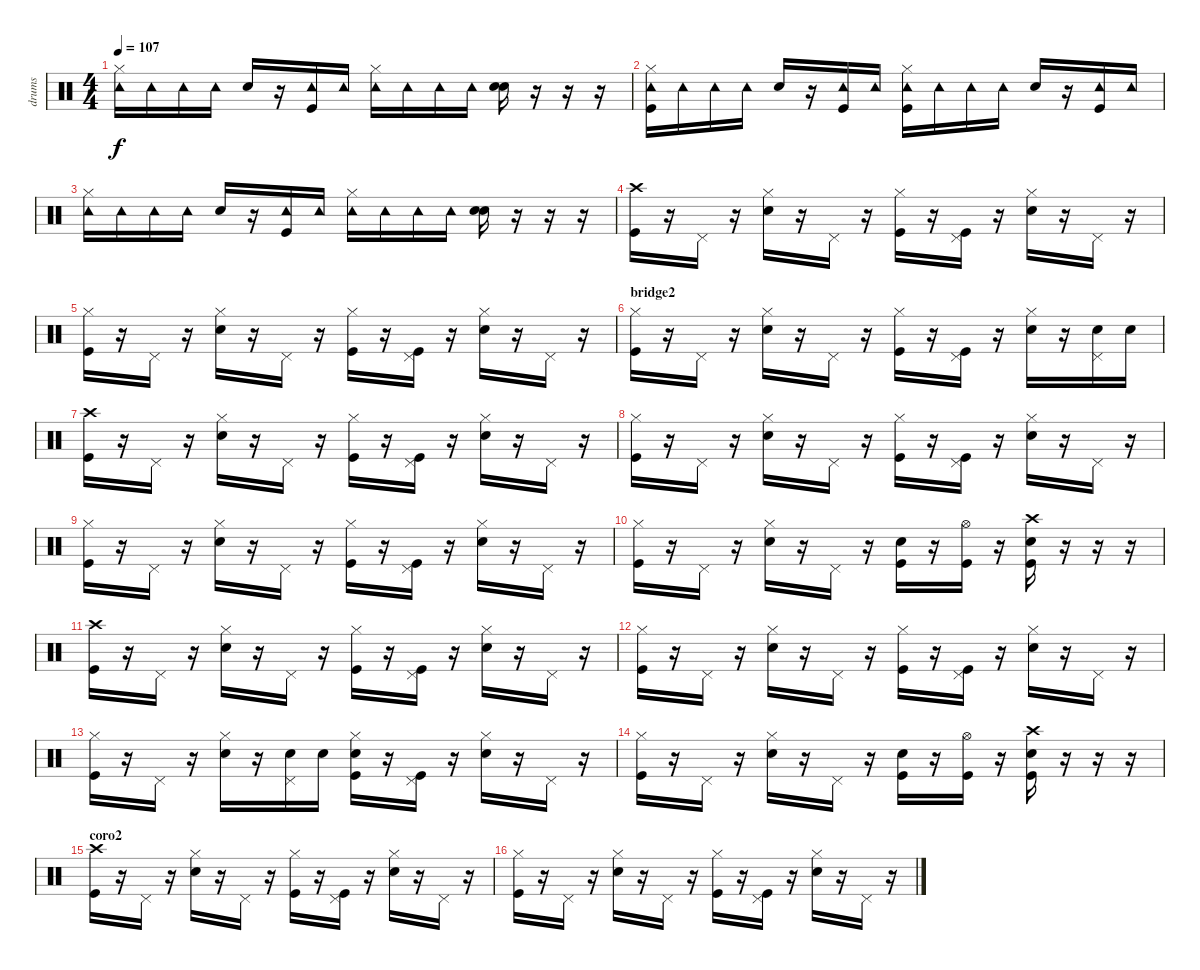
\track ("drums" "drums") {instrument percussion}
\staff {score}
\articulation defaults
\ts (4 4)
\tempo 107
\clef neutral
\ks c
("Hi-Hat (closed)" "Tambourine (hit)").16{dy f} "Tambourine (hit)".16 "Tambourine (hit)".16 "Tambourine (hit)".16 "Snare (hit) 2".16 r.16 ("Tambourine (hit)" "Kick (hit)").16 "Tambourine (hit)".16 ("Hi-Hat (closed)" "Tambourine (hit)").16 "Tambourine (hit)".16 "Tambourine (hit)".16 "Tambourine (hit)".16 ("Snare (hit) 2" "Electric Snare (hit)").16 r.16 r.16 r.16 |
("Hi-Hat (closed)" "Tambourine (hit)" "Kick (hit)").16 "Tambourine (hit)".16 "Tambourine (hit)".16 "Tambourine (hit)".16 "Snare (hit) 2".16 r.16 ("Tambourine (hit)" "Kick (hit)").16 "Tambourine (hit)".16 ("Hi-Hat (closed)" "Tambourine (hit)" "Kick (hit)").16 "Tambourine (hit)".16 "Tambourine (hit)".16 "Tambourine (hit)".16 "Snare (hit) 2".16 r.16 ("Tambourine (hit)" "Kick (hit)").16 "Tambourine (hit)".16 |
("Hi-Hat (closed)" "Tambourine (hit)").16 "Tambourine (hit)".16 "Tambourine (hit)".16 "Tambourine (hit)".16 "Snare (hit) 2".16 r.16 ("Tambourine (hit)" "Kick (hit)").16 "Tambourine (hit)".16 ("Hi-Hat (closed)" "Tambourine (hit)").16 "Tambourine (hit)".16 "Tambourine (hit)".16 "Tambourine (hit)".16 ("Snare (hit) 2" "Electric Snare (hit)").16 r.16 r.16 r.16 |
("Crash high (hit)" "Kick (hit)").16 r.16 "Pedal Hi-Hat (hit)".16 r.16 ("Hi-Hat (closed)" "Snare (hit) 2").16 r.16 "Pedal Hi-Hat (hit)".16 r.16 ("Hi-Hat (closed)" "Kick (hit)").16 r.16 ("Pedal Hi-Hat (hit)" "Kick (hit)").16 r.16 ("Hi-Hat (closed)" "Snare (hit) 2").16 r.16 "Pedal Hi-Hat (hit)".16 r.16 |
("Hi-Hat (closed)" "Kick (hit)").16 r.16 "Pedal Hi-Hat (hit)".16 r.16 ("Hi-Hat (closed)" "Snare (hit) 2").16 r.16 "Pedal Hi-Hat (hit)".16 r.16 ("Hi-Hat (closed)" "Kick (hit)").16 r.16 ("Pedal Hi-Hat (hit)" "Kick (hit)").16 r.16 ("Hi-Hat (closed)" "Snare (hit) 2").16 r.16 "Pedal Hi-Hat (hit)".16 r.16 |
\section ("" "bridge2")
("Hi-Hat (closed)" "Kick (hit)").16 r.16 "Pedal Hi-Hat (hit)".16 r.16 ("Hi-Hat (closed)" "Snare (hit) 2").16 r.16 "Pedal Hi-Hat (hit)".16 r.16 ("Hi-Hat (closed)" "Kick (hit)").16 r.16 ("Pedal Hi-Hat (hit)" "Kick (hit)").16 r.16 ("Hi-Hat (closed)" "Snare (hit) 2").16 r.16 ("Pedal Hi-Hat (hit)" "Snare (hit) 2").16 "Snare (hit) 2".16 |
("Crash high (hit)" "Kick (hit)").16 r.16 "Pedal Hi-Hat (hit)".16 r.16 ("Hi-Hat (closed)" "Snare (hit) 2").16 r.16 "Pedal Hi-Hat (hit)".16 r.16 ("Hi-Hat (closed)" "Kick (hit)").16 r.16 ("Pedal Hi-Hat (hit)" "Kick (hit)").16 r.16 ("Hi-Hat (closed)" "Snare (hit) 2").16 r.16 "Pedal Hi-Hat (hit)".16 r.16 |
("Hi-Hat (closed)" "Kick (hit)").16 r.16 "Pedal Hi-Hat (hit)".16 r.16 ("Hi-Hat (closed)" "Snare (hit) 2").16 r.16 "Pedal Hi-Hat (hit)".16 r.16 ("Hi-Hat (closed)" "Kick (hit)").16 r.16 ("Pedal Hi-Hat (hit)" "Kick (hit)").16 r.16 ("Hi-Hat (closed)" "Snare (hit) 2").16 r.16 "Pedal Hi-Hat (hit)".16 r.16 |
("Hi-Hat (closed)" "Kick (hit)").16 r.16 "Pedal Hi-Hat (hit)".16 r.16 ("Hi-Hat (closed)" "Snare (hit) 2").16 r.16 "Pedal Hi-Hat (hit)".16 r.16 ("Hi-Hat (closed)" "Kick (hit)").16 r.16 ("Pedal Hi-Hat (hit)" "Kick (hit)").16 r.16 ("Hi-Hat (closed)" "Snare (hit) 2").16 r.16 "Pedal Hi-Hat (hit)".16 r.16 |
("Hi-Hat (closed)" "Kick (hit)").16 r.16 "Pedal Hi-Hat (hit)".16 r.16 ("Hi-Hat (closed)" "Snare (hit) 2").16 r.16 "Pedal Hi-Hat (hit)".16 r.16 ("Snare (hit) 2" "Kick (hit)").16 r.16 ("Hi-Hat (open)" "Kick (hit)").16 r.16 ("Crash high (hit)" "Snare (hit) 2" "Kick (hit)").16 r.16 r.16 r.16 |
("Crash high (hit)" "Kick (hit)").16 r.16 "Pedal Hi-Hat (hit)".16 r.16 ("Hi-Hat (closed)" "Snare (hit) 2").16 r.16 "Pedal Hi-Hat (hit)".16 r.16 ("Hi-Hat (closed)" "Kick (hit)").16 r.16 ("Pedal Hi-Hat (hit)" "Kick (hit)").16 r.16 ("Hi-Hat (closed)" "Snare (hit) 2").16 r.16 "Pedal Hi-Hat (hit)".16 r.16 |
("Hi-Hat (closed)" "Kick (hit)").16 r.16 "Pedal Hi-Hat (hit)".16 r.16 ("Hi-Hat (closed)" "Snare (hit) 2").16 r.16 "Pedal Hi-Hat (hit)".16 r.16 ("Hi-Hat (closed)" "Kick (hit)").16 r.16 ("Pedal Hi-Hat (hit)" "Kick (hit)").16 r.16 ("Hi-Hat (closed)" "Snare (hit) 2").16 r.16 "Pedal Hi-Hat (hit)".16 r.16 |
("Hi-Hat (closed)" "Kick (hit)").16 r.16 "Pedal Hi-Hat (hit)".16 r.16 ("Hi-Hat (closed)" "Snare (hit) 2").16 r.16 ("Pedal Hi-Hat (hit)" "Snare (hit) 2").16 "Snare (hit) 2".16 ("Hi-Hat (closed)" "Snare (hit) 2" "Kick (hit)").16 r.16 ("Pedal Hi-Hat (hit)" "Kick (hit)").16 r.16 ("Hi-Hat (closed)" "Snare (hit) 2").16 r.16 "Pedal Hi-Hat (hit)".16 r.16 |
("Hi-Hat (closed)" "Kick (hit)").16 r.16 "Pedal Hi-Hat (hit)".16 r.16 ("Hi-Hat (closed)" "Snare (hit) 2").16 r.16 "Pedal Hi-Hat (hit)".16 r.16 ("Snare (hit) 2" "Kick (hit)").16 r.16 ("Hi-Hat (open)" "Kick (hit)").16 r.16 ("Crash high (hit)" "Snare (hit) 2" "Kick (hit)").16 r.16 r.16 r.16 |
\section ("" "coro2")
("Crash high (hit)" "Kick (hit)").16 r.16 "Pedal Hi-Hat (hit)".16 r.16 ("Hi-Hat (closed)" "Snare (hit) 2").16 r.16 "Pedal Hi-Hat (hit)".16 r.16 ("Hi-Hat (closed)" "Kick (hit)").16 r.16 ("Pedal Hi-Hat (hit)" "Kick (hit)").16 r.16 ("Hi-Hat (closed)" "Snare (hit) 2").16 r.16 "Pedal Hi-Hat (hit)".16 r.16 |
("Hi-Hat (closed)" "Kick (hit)").16 r.16 "Pedal Hi-Hat (hit)".16 r.16 ("Hi-Hat (closed)" "Snare (hit) 2").16 r.16 "Pedal Hi-Hat (hit)".16 r.16 ("Hi-Hat (closed)" "Kick (hit)").16 r.16 ("Pedal Hi-Hat (hit)" "Kick (hit)").16 r.16 ("Hi-Hat (closed)" "Snare (hit) 2").16 r.16 "Pedal Hi-Hat (hit)".16 r.16
